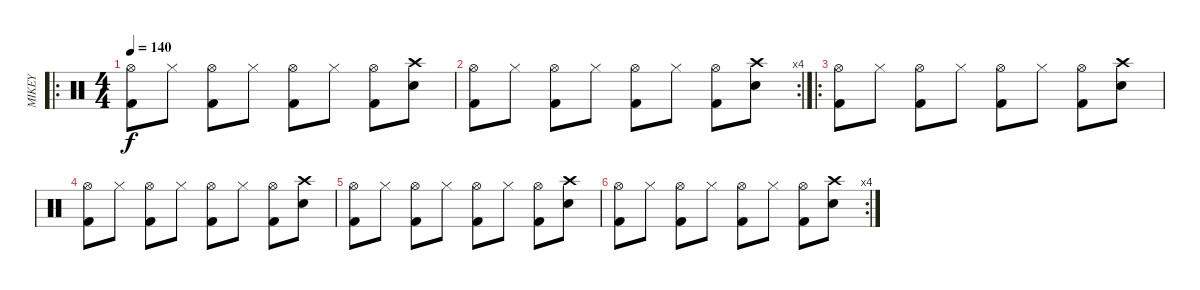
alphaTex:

\track ("MIKEY" "MIKEY") {instrument percussion}
\staff {score}
\articulation defaults
\ro
\ts (4 4)
\tempo 140
\clef neutral
\ks c
("Kick (hit) 2" "Hi-Hat (open)").8{dy f} "Hi-Hat (closed)".8 ("Kick (hit) 2" "Hi-Hat (open)").8 "Hi-Hat (closed)".8 ("Kick (hit) 2" "Hi-Hat (open)").8 "Hi-Hat (closed)".8 ("Kick (hit) 2" "Hi-Hat (open)").8 ("Snare (hit) 2" "Crash high (hit)").8 |
\rc 4
("Kick (hit) 2" "Hi-Hat (open)").8 "Hi-Hat (closed)".8 ("Kick (hit) 2" "Hi-Hat (open)").8 "Hi-Hat (closed)".8 ("Kick (hit) 2" "Hi-Hat (open)").8 "Hi-Hat (closed)".8 ("Kick (hit) 2" "Hi-Hat (open)").8 ("Snare (hit) 2" "Crash high (hit)").8 |
\ro
("Kick (hit) 2" "Hi-Hat (open)").8 "Hi-Hat (closed)".8 ("Kick (hit) 2" "Hi-Hat (open)").8 "Hi-Hat (closed)".8 ("Kick (hit) 2" "Hi-Hat (open)").8 "Hi-Hat (closed)".8 ("Kick (hit) 2" "Hi-Hat (open)").8 ("Snare (hit) 2" "Crash high (hit)").8 |
("Kick (hit) 2" "Hi-Hat (open)").8 "Hi-Hat (closed)".8 ("Kick (hit) 2" "Hi-Hat (open)").8 "Hi-Hat (closed)".8 ("Kick (hit) 2" "Hi-Hat (open)").8 "Hi-Hat (closed)".8 ("Kick (hit) 2" "Hi-Hat (open)").8 ("Snare (hit) 2" "Crash high (hit)").8 |
("Kick (hit) 2" "Hi-Hat (open)").8 "Hi-Hat (closed)".8 ("Kick (hit) 2" "Hi-Hat (open)").8 "Hi-Hat (closed)".8 ("Kick (hit) 2" "Hi-Hat (open)").8 "Hi-Hat (closed)".8 ("Kick (hit) 2" "Hi-Hat (open)").8 ("Snare (hit) 2" "Crash high (hit)").8 |
\rc 4
("Kick (hit) 2" "Hi-Hat (open)").8 "Hi-Hat (closed)".8 ("Kick (hit) 2" "Hi-Hat (open)").8 "Hi-Hat (closed)".8 ("Kick (hit) 2" "Hi-Hat (open)").8 "Hi-Hat (closed)".8 ("Kick (hit) 2" "Hi-Hat (open)").8 ("Snare (hit) 2" "Crash high (hit)").8
